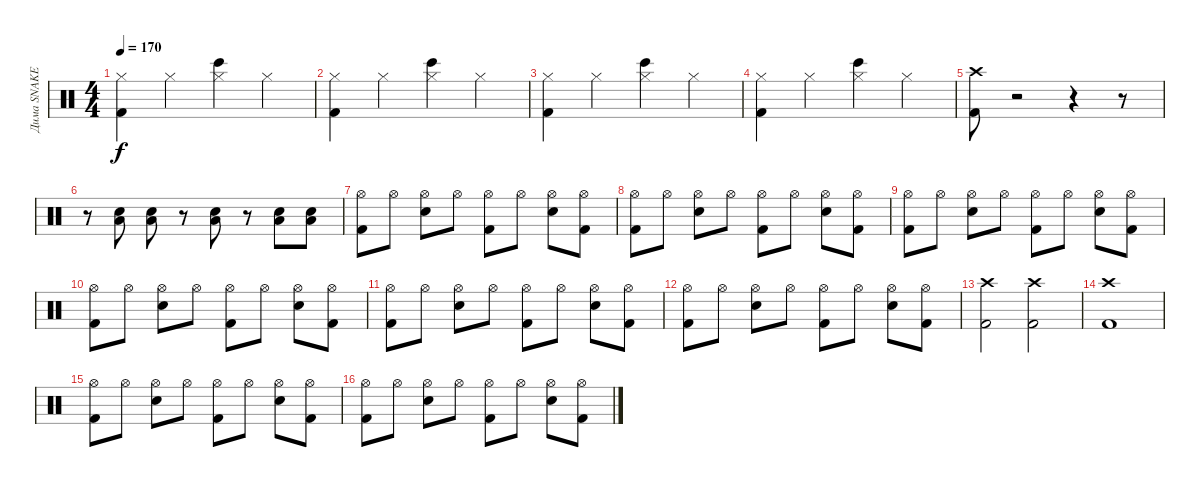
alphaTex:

\track ("Дима SNAKE" "Дима SNAKE") {instrument percussion}
\staff {score}
\articulation defaults
\ts (4 4)
\tempo 170
\clef neutral
\ks c
("Hi-Hat (closed)" "Kick (hit) 2").4{dy f} "Hi-Hat (closed)".4 ("Hi-Hat (closed)" "Bongo High (hit)").4 "Hi-Hat (closed)".4 |
("Hi-Hat (closed)" "Kick (hit) 2").4 "Hi-Hat (closed)".4 ("Hi-Hat (closed)" "Bongo High (hit)").4 "Hi-Hat (closed)".4 |
("Hi-Hat (closed)" "Kick (hit) 2").4 "Hi-Hat (closed)".4 ("Hi-Hat (closed)" "Bongo High (hit)").4 "Hi-Hat (closed)".4 |
("Hi-Hat (closed)" "Kick (hit) 2").4 "Hi-Hat (closed)".4 ("Hi-Hat (closed)" "Bongo High (hit)").4 "Hi-Hat (closed)".4 |
("Crash high (hit)" "Kick (hit) 2").8 r.2 r.4 r.8 |
r.8 ("Low Tom (hit)" "Snare (hit) 2").8 ("Low Tom (hit)" "Snare (hit) 2").8 r.8 ("Low Tom (hit)" "Snare (hit) 2").8 r.8 ("Low Tom (hit)" "Snare (hit) 2").8 ("Low Tom (hit)" "Snare (hit) 2").8 |
("Hi-Hat (open)" "Kick (hit) 2").8 "Hi-Hat (open)".8 ("Hi-Hat (open)" "Snare (hit) 2").8 "Hi-Hat (open)".8 ("Hi-Hat (open)" "Kick (hit) 2").8 "Hi-Hat (open)".8 ("Hi-Hat (open)" "Snare (hit) 2").8 ("Hi-Hat (open)" "Kick (hit) 2").8 |
("Hi-Hat (open)" "Kick (hit) 2").8 "Hi-Hat (open)".8 ("Hi-Hat (open)" "Snare (hit) 2").8 "Hi-Hat (open)".8 ("Hi-Hat (open)" "Kick (hit) 2").8 "Hi-Hat (open)".8 ("Hi-Hat (open)" "Snare (hit) 2").8 ("Hi-Hat (open)" "Kick (hit) 2").8 |
("Hi-Hat (open)" "Kick (hit) 2").8 "Hi-Hat (open)".8 ("Hi-Hat (open)" "Snare (hit) 2").8 "Hi-Hat (open)".8 ("Hi-Hat (open)" "Kick (hit) 2").8 "Hi-Hat (open)".8 ("Hi-Hat (open)" "Snare (hit) 2").8 ("Hi-Hat (open)" "Kick (hit) 2").8 |
("Hi-Hat (open)" "Kick (hit) 2").8 "Hi-Hat (open)".8 ("Hi-Hat (open)" "Snare (hit) 2").8 "Hi-Hat (open)".8 ("Hi-Hat (open)" "Kick (hit) 2").8 "Hi-Hat (open)".8 ("Hi-Hat (open)" "Snare (hit) 2").8 ("Hi-Hat (open)" "Kick (hit) 2").8 |
("Hi-Hat (open)" "Kick (hit) 2").8 "Hi-Hat (open)".8 ("Hi-Hat (open)" "Snare (hit) 2").8 "Hi-Hat (open)".8 ("Hi-Hat (open)" "Kick (hit) 2").8 "Hi-Hat (open)".8 ("Hi-Hat (open)" "Snare (hit) 2").8 ("Hi-Hat (open)" "Kick (hit) 2").8 |
("Hi-Hat (open)" "Kick (hit) 2").8 "Hi-Hat (open)".8 ("Hi-Hat (open)" "Snare (hit) 2").8 "Hi-Hat (open)".8 ("Hi-Hat (open)" "Kick (hit) 2").8 "Hi-Hat (open)".8 ("Hi-Hat (open)" "Snare (hit) 2").8 ("Hi-Hat (open)" "Kick (hit) 2").8 |
("Crash high (hit)" "Kick (hit) 2").2 ("Crash high (hit)" "Kick (hit) 2").2 |
("Crash high (hit)" "Kick (hit) 2").1 |
("Hi-Hat (open)" "Kick (hit) 2").8 "Hi-Hat (open)".8 ("Hi-Hat (open)" "Snare (hit) 2").8 "Hi-Hat (open)".8 ("Hi-Hat (open)" "Kick (hit) 2").8 "Hi-Hat (open)".8 ("Hi-Hat (open)" "Snare (hit) 2").8 ("Hi-Hat (open)" "Kick (hit) 2").8 |
("Hi-Hat (open)" "Kick (hit) 2").8 "Hi-Hat (open)".8 ("Hi-Hat (open)" "Snare (hit) 2").8 "Hi-Hat (open)".8 ("Hi-Hat (open)" "Kick (hit) 2").8 "Hi-Hat (open)".8 ("Hi-Hat (open)" "Snare (hit) 2").8 ("Hi-Hat (open)" "Kick (hit) 2").8
